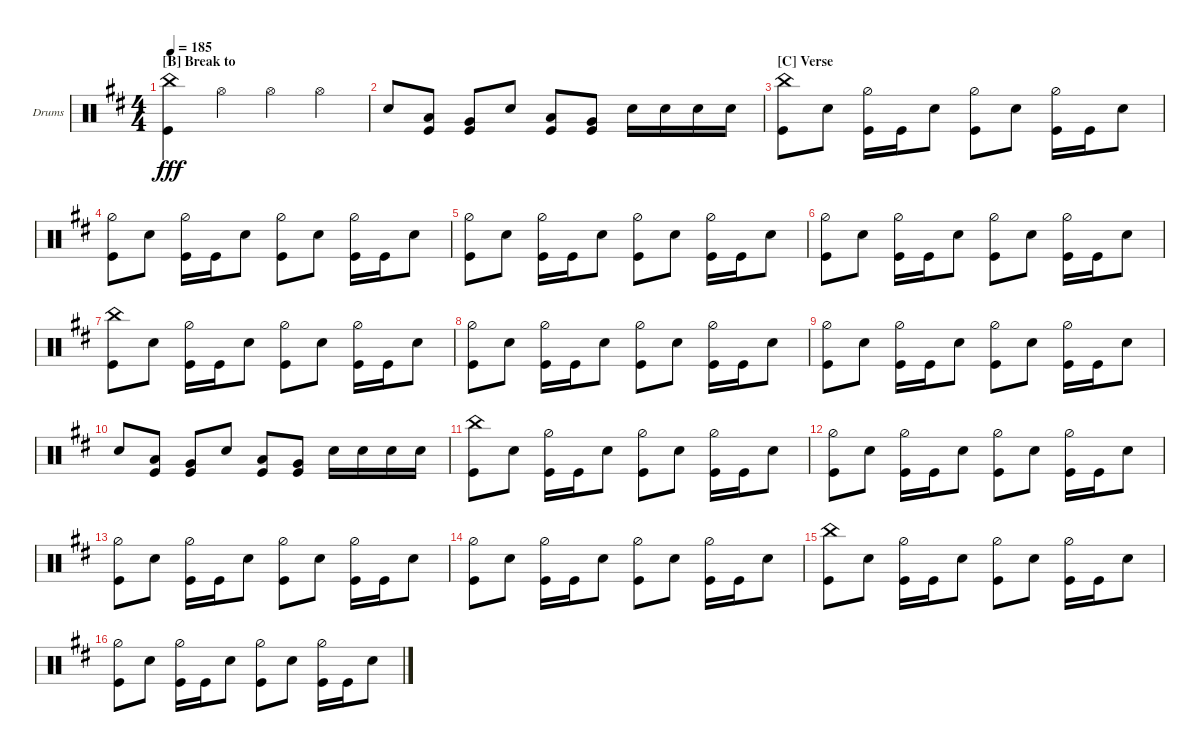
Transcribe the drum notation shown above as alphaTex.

\defaultSystemsLayout 4
\bracketExtendMode groupsimilarinstruments
\firstSystemTrackNameOrientation horizontal
\otherSystemsTrackNameOrientation horizontal
\track ("Drumkit" "Drums") {instrument percussion}
\staff {score}
\articulation defaults
\ts (4 4)
\section ("B" "Break to")
\tempo 185
\clef neutral
\ks bminor
("Kick (hit)" "China (hit)").4{dy fff} "Hi-Hat (open)".4 "Hi-Hat (open)".4 "Hi-Hat (open)".4 |
"Snare (hit) 2".8 ("Low Tom (hit)" "Kick (hit)").8 ("Very Low Tom (hit)" "Kick (hit)").8 "Snare (hit) 2".8 ("Low Tom (hit)" "Kick (hit)").8 ("Very Low Tom (hit)" "Kick (hit)").8 "Snare (hit) 2".16 "Snare (hit) 2".16 "Snare (hit) 2".16 "Snare (hit) 2".16 |
\section ("C" "Verse")
("Kick (hit)" "China (hit)").8 "Snare (hit) 2".8 ("Kick (hit)" "Hi-Hat (half)").16 "Kick (hit)".16 "Snare (hit) 2".8 ("Hi-Hat (half)" "Kick (hit)").8 "Snare (hit) 2".8 ("Kick (hit)" "Hi-Hat (half)").16 "Kick (hit)".16 "Snare (hit) 2".8 |
("Hi-Hat (half)" "Kick (hit)").8 "Snare (hit) 2".8 ("Kick (hit)" "Hi-Hat (half)").16 "Kick (hit)".16 "Snare (hit) 2".8 ("Hi-Hat (half)" "Kick (hit)").8 "Snare (hit) 2".8 ("Kick (hit)" "Hi-Hat (half)").16 "Kick (hit)".16 "Snare (hit) 2".8 |
("Hi-Hat (half)" "Kick (hit)").8 "Snare (hit) 2".8 ("Kick (hit)" "Hi-Hat (half)").16 "Kick (hit)".16 "Snare (hit) 2".8 ("Hi-Hat (half)" "Kick (hit)").8 "Snare (hit) 2".8 ("Kick (hit)" "Hi-Hat (half)").16 "Kick (hit)".16 "Snare (hit) 2".8 |
("Hi-Hat (half)" "Kick (hit)").8 "Snare (hit) 2".8 ("Kick (hit)" "Hi-Hat (half)").16 "Kick (hit)".16 "Snare (hit) 2".8 ("Hi-Hat (half)" "Kick (hit)").8 "Snare (hit) 2".8 ("Kick (hit)" "Hi-Hat (half)").16 "Kick (hit)".16 "Snare (hit) 2".8 |
("Kick (hit)" "China (hit)").8 "Snare (hit) 2".8 ("Kick (hit)" "Hi-Hat (half)").16 "Kick (hit)".16 "Snare (hit) 2".8 ("Hi-Hat (half)" "Kick (hit)").8 "Snare (hit) 2".8 ("Kick (hit)" "Hi-Hat (half)").16 "Kick (hit)".16 "Snare (hit) 2".8 |
("Hi-Hat (half)" "Kick (hit)").8 "Snare (hit) 2".8 ("Kick (hit)" "Hi-Hat (half)").16 "Kick (hit)".16 "Snare (hit) 2".8 ("Hi-Hat (half)" "Kick (hit)").8 "Snare (hit) 2".8 ("Kick (hit)" "Hi-Hat (half)").16 "Kick (hit)".16 "Snare (hit) 2".8 |
("Hi-Hat (half)" "Kick (hit)").8 "Snare (hit) 2".8 ("Kick (hit)" "Hi-Hat (half)").16 "Kick (hit)".16 "Snare (hit) 2".8 ("Hi-Hat (half)" "Kick (hit)").8 "Snare (hit) 2".8 ("Kick (hit)" "Hi-Hat (half)").16 "Kick (hit)".16 "Snare (hit) 2".8 |
"Snare (hit) 2".8 ("Low Tom (hit)" "Kick (hit)").8 ("Very Low Tom (hit)" "Kick (hit)").8 "Snare (hit) 2".8 ("Low Tom (hit)" "Kick (hit)").8 ("Very Low Tom (hit)" "Kick (hit)").8 "Snare (hit) 2".16 "Snare (hit) 2".16 "Snare (hit) 2".16 "Snare (hit) 2".16 |
("Kick (hit)" "China (hit)").8 "Snare (hit) 2".8 ("Kick (hit)" "Hi-Hat (half)").16 "Kick (hit)".16 "Snare (hit) 2".8 ("Hi-Hat (half)" "Kick (hit)").8 "Snare (hit) 2".8 ("Kick (hit)" "Hi-Hat (half)").16 "Kick (hit)".16 "Snare (hit) 2".8 |
("Hi-Hat (half)" "Kick (hit)").8 "Snare (hit) 2".8 ("Kick (hit)" "Hi-Hat (half)").16 "Kick (hit)".16 "Snare (hit) 2".8 ("Hi-Hat (half)" "Kick (hit)").8 "Snare (hit) 2".8 ("Kick (hit)" "Hi-Hat (half)").16 "Kick (hit)".16 "Snare (hit) 2".8 |
("Hi-Hat (half)" "Kick (hit)").8 "Snare (hit) 2".8 ("Kick (hit)" "Hi-Hat (half)").16 "Kick (hit)".16 "Snare (hit) 2".8 ("Hi-Hat (half)" "Kick (hit)").8 "Snare (hit) 2".8 ("Kick (hit)" "Hi-Hat (half)").16 "Kick (hit)".16 "Snare (hit) 2".8 |
("Hi-Hat (half)" "Kick (hit)").8 "Snare (hit) 2".8 ("Kick (hit)" "Hi-Hat (half)").16 "Kick (hit)".16 "Snare (hit) 2".8 ("Hi-Hat (half)" "Kick (hit)").8 "Snare (hit) 2".8 ("Kick (hit)" "Hi-Hat (half)").16 "Kick (hit)".16 "Snare (hit) 2".8 |
("Kick (hit)" "China (hit)").8 "Snare (hit) 2".8 ("Kick (hit)" "Hi-Hat (half)").16 "Kick (hit)".16 "Snare (hit) 2".8 ("Hi-Hat (half)" "Kick (hit)").8 "Snare (hit) 2".8 ("Kick (hit)" "Hi-Hat (half)").16 "Kick (hit)".16 "Snare (hit) 2".8 |
("Hi-Hat (half)" "Kick (hit)").8 "Snare (hit) 2".8 ("Kick (hit)" "Hi-Hat (half)").16 "Kick (hit)".16 "Snare (hit) 2".8 ("Hi-Hat (half)" "Kick (hit)").8 "Snare (hit) 2".8 ("Kick (hit)" "Hi-Hat (half)").16 "Kick (hit)".16 "Snare (hit) 2".8
